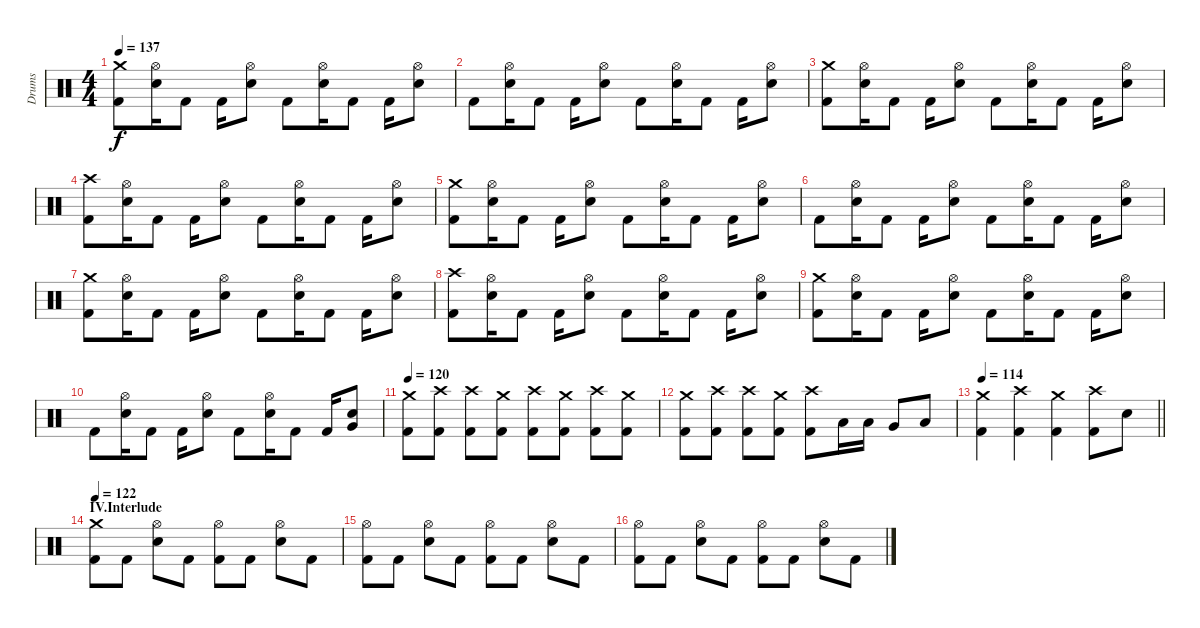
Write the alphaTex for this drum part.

\track ("Drums" "Drums") {instrument percussion}
\staff {score}
\articulation defaults
\ts (4 4)
\tempo 137
\clef neutral
\ks c
("Crash medium (hit)" "Kick (hit) 2").8{dy f} ("Hi-Hat (open)" "Electric Snare (hit)").16 "Kick (hit) 2".8 "Kick (hit) 2".16 ("Hi-Hat (open)" "Electric Snare (hit)").8 "Kick (hit) 2".8 ("Hi-Hat (open)" "Electric Snare (hit)").16 "Kick (hit) 2".8 "Kick (hit) 2".16 ("Hi-Hat (open)" "Electric Snare (hit)").8 |
"Kick (hit) 2".8 ("Hi-Hat (open)" "Electric Snare (hit)").16 "Kick (hit) 2".8 "Kick (hit) 2".16 ("Hi-Hat (open)" "Electric Snare (hit)").8 "Kick (hit) 2".8 ("Hi-Hat (open)" "Electric Snare (hit)").16 "Kick (hit) 2".8 "Kick (hit) 2".16 ("Hi-Hat (open)" "Electric Snare (hit)").8 |
("Crash medium (hit)" "Kick (hit) 2").8 ("Hi-Hat (open)" "Electric Snare (hit)").16 "Kick (hit) 2".8 "Kick (hit) 2".16 ("Hi-Hat (open)" "Electric Snare (hit)").8 "Kick (hit) 2".8 ("Hi-Hat (open)" "Electric Snare (hit)").16 "Kick (hit) 2".8 "Kick (hit) 2".16 ("Hi-Hat (open)" "Electric Snare (hit)").8 |
("Crash high (hit)" "Kick (hit) 2").8 ("Hi-Hat (open)" "Electric Snare (hit)").16 "Kick (hit) 2".8 "Kick (hit) 2".16 ("Hi-Hat (open)" "Electric Snare (hit)").8 "Kick (hit) 2".8 ("Hi-Hat (open)" "Electric Snare (hit)").16 "Kick (hit) 2".8 "Kick (hit) 2".16 ("Hi-Hat (open)" "Electric Snare (hit)").8 |
("Crash medium (hit)" "Kick (hit) 2").8 ("Hi-Hat (open)" "Electric Snare (hit)").16 "Kick (hit) 2".8 "Kick (hit) 2".16 ("Hi-Hat (open)" "Electric Snare (hit)").8 "Kick (hit) 2".8 ("Hi-Hat (open)" "Electric Snare (hit)").16 "Kick (hit) 2".8 "Kick (hit) 2".16 ("Hi-Hat (open)" "Electric Snare (hit)").8 |
"Kick (hit) 2".8 ("Hi-Hat (open)" "Electric Snare (hit)").16 "Kick (hit) 2".8 "Kick (hit) 2".16 ("Hi-Hat (open)" "Electric Snare (hit)").8 "Kick (hit) 2".8 ("Hi-Hat (open)" "Electric Snare (hit)").16 "Kick (hit) 2".8 "Kick (hit) 2".16 ("Hi-Hat (open)" "Electric Snare (hit)").8 |
("Crash medium (hit)" "Kick (hit) 2").8 ("Hi-Hat (open)" "Electric Snare (hit)").16 "Kick (hit) 2".8 "Kick (hit) 2".16 ("Hi-Hat (open)" "Electric Snare (hit)").8 "Kick (hit) 2".8 ("Hi-Hat (open)" "Electric Snare (hit)").16 "Kick (hit) 2".8 "Kick (hit) 2".16 ("Hi-Hat (open)" "Electric Snare (hit)").8 |
("Crash high (hit)" "Kick (hit) 2").8 ("Hi-Hat (open)" "Electric Snare (hit)").16 "Kick (hit) 2".8 "Kick (hit) 2".16 ("Hi-Hat (open)" "Electric Snare (hit)").8 "Kick (hit) 2".8 ("Hi-Hat (open)" "Electric Snare (hit)").16 "Kick (hit) 2".8 "Kick (hit) 2".16 ("Hi-Hat (open)" "Electric Snare (hit)").8 |
("Crash medium (hit)" "Kick (hit) 2").8 ("Hi-Hat (open)" "Electric Snare (hit)").16 "Kick (hit) 2".8 "Kick (hit) 2".16 ("Hi-Hat (open)" "Electric Snare (hit)").8 "Kick (hit) 2".8 ("Hi-Hat (open)" "Electric Snare (hit)").16 "Kick (hit) 2".8 "Kick (hit) 2".16 ("Hi-Hat (open)" "Electric Snare (hit)").8 |
"Kick (hit) 2".8 ("Hi-Hat (open)" "Electric Snare (hit)").16 "Kick (hit) 2".8 "Kick (hit) 2".16 ("Hi-Hat (open)" "Electric Snare (hit)").8 "Kick (hit) 2".8 ("Hi-Hat (open)" "Electric Snare (hit)").16 "Kick (hit) 2".8 "Kick (hit) 2".16 ("Very Low Tom (hit)" "Electric Snare (hit)").8 |
\tempo 120
("Crash medium (hit)" "Kick (hit) 2").8 ("Crash high (hit)" "Kick (hit) 2").8 ("Crash high (hit)" "Kick (hit) 2").8 ("Crash medium (hit)" "Kick (hit) 2").8 ("Crash high (hit)" "Kick (hit) 2").8 ("Crash medium (hit)" "Kick (hit) 2").8 ("Crash high (hit)" "Kick (hit) 2").8 ("Crash medium (hit)" "Kick (hit) 2").8 |
("Crash medium (hit)" "Kick (hit) 2").8 ("Crash high (hit)" "Kick (hit) 2").8 ("Crash high (hit)" "Kick (hit) 2").8 ("Crash medium (hit)" "Kick (hit) 2").8 ("Crash high (hit)" "Kick (hit) 2").8 "Low Tom (hit)".16 "Low Tom (hit)".16 "Very Low Tom (hit)".8 "Low Floor Tom (hit)".8 |
\tempo 114
\barLineRight lightlight
("Crash medium (hit)" "Kick (hit) 2").4 ("Crash high (hit)" "Kick (hit) 2").4 ("Crash medium (hit)" "Kick (hit) 2").4 ("Crash high (hit)" "Kick (hit) 2").8 "Electric Snare (hit)".8 |
\section ("" "IV.Interlude")
\tempo 122
("Crash medium (hit)" "Kick (hit) 2").8 "Kick (hit) 2".8 ("Hi-Hat (open)" "Electric Snare (hit)").8 "Kick (hit) 2".8 ("Hi-Hat (open)" "Kick (hit) 2").8 "Kick (hit) 2".8 ("Hi-Hat (open)" "Electric Snare (hit)").8 "Kick (hit) 2".8 |
("Hi-Hat (open)" "Kick (hit) 2").8 "Kick (hit) 2".8 ("Hi-Hat (open)" "Electric Snare (hit)").8 "Kick (hit) 2".8 ("Hi-Hat (open)" "Kick (hit) 2").8 "Kick (hit) 2".8 ("Hi-Hat (open)" "Electric Snare (hit)").8 "Kick (hit) 2".8 |
("Hi-Hat (open)" "Kick (hit) 2").8 "Kick (hit) 2".8 ("Hi-Hat (open)" "Electric Snare (hit)").8 "Kick (hit) 2".8 ("Hi-Hat (open)" "Kick (hit) 2").8 "Kick (hit) 2".8 ("Hi-Hat (open)" "Electric Snare (hit)").8 "Kick (hit) 2".8
